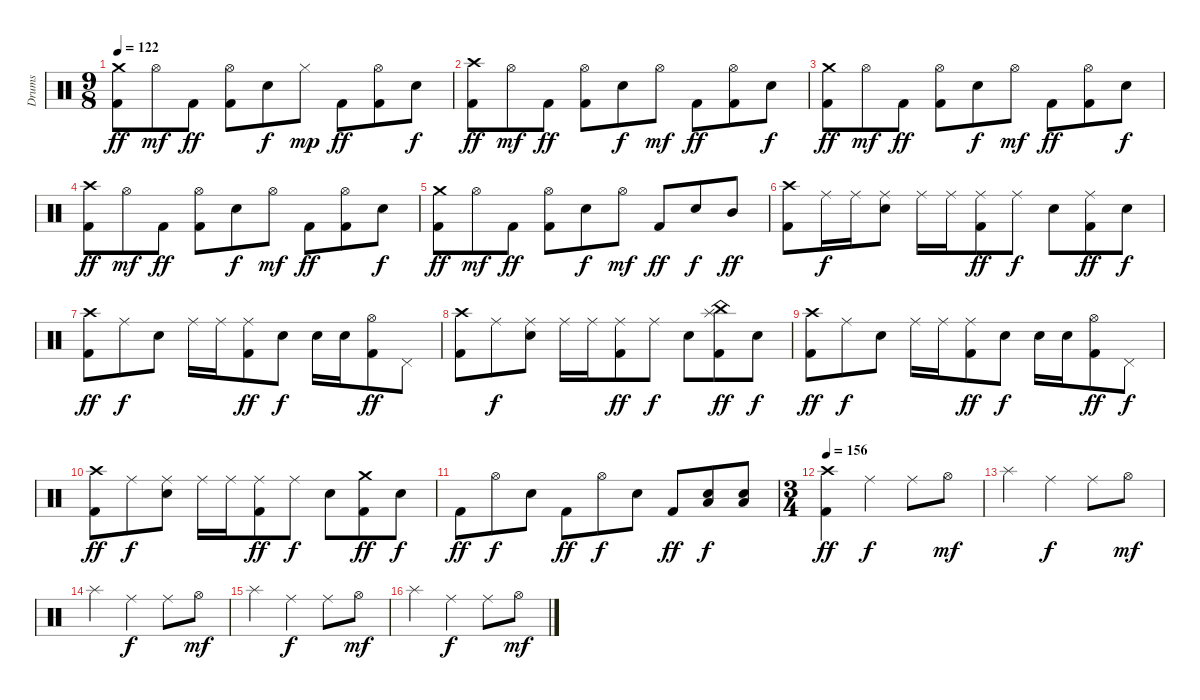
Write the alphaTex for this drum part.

\track ("Drums" "Drums") {instrument percussion}
\staff {score}
\articulation defaults
\ts (9 8)
\tempo 122
\clef neutral
\ks c
("Crash medium (hit)" "Kick (hit) 2").8{dy ff} "Hi-Hat (open)".8{dy mf} "Kick (hit) 2".8{dy ff} ("Hi-Hat (open)" "Kick (hit) 2").8 "Electric Snare (hit)".8{dy f} "Hi-Hat (closed)".8{dy mp} "Kick (hit) 2".8{dy ff} ("Hi-Hat (open)" "Kick (hit) 2").8 "Electric Snare (hit)".8{dy f} |
("Crash high (hit)" "Kick (hit) 2").8{dy ff} "Hi-Hat (open)".8{dy mf} "Kick (hit) 2".8{dy ff} ("Hi-Hat (open)" "Kick (hit) 2").8 "Electric Snare (hit)".8{dy f} "Hi-Hat (open)".8{dy mf} "Kick (hit) 2".8{dy ff} ("Hi-Hat (open)" "Kick (hit) 2").8 "Electric Snare (hit)".8{dy f} |
("Crash medium (hit)" "Kick (hit) 2").8{dy ff} "Hi-Hat (open)".8{dy mf} "Kick (hit) 2".8{dy ff} ("Hi-Hat (open)" "Kick (hit) 2").8 "Electric Snare (hit)".8{dy f} "Hi-Hat (open)".8{dy mf} "Kick (hit) 2".8{dy ff} ("Hi-Hat (open)" "Kick (hit) 2").8 "Electric Snare (hit)".8{dy f} |
("Crash high (hit)" "Kick (hit) 2").8{dy ff} "Hi-Hat (open)".8{dy mf} "Kick (hit) 2".8{dy ff} ("Hi-Hat (open)" "Kick (hit) 2").8 "Electric Snare (hit)".8{dy f} "Hi-Hat (open)".8{dy mf} "Kick (hit) 2".8{dy ff} ("Hi-Hat (open)" "Kick (hit) 2").8 "Electric Snare (hit)".8{dy f} |
("Crash medium (hit)" "Kick (hit) 2").8{dy ff} "Hi-Hat (open)".8{dy mf} "Kick (hit) 2".8{dy ff} ("Hi-Hat (open)" "Kick (hit) 2").8 "Electric Snare (hit)".8{dy f} "Hi-Hat (open)".8{dy mf} "Kick (hit) 2".8{dy ff} "Electric Snare (hit)".8{dy f} "Mid Tom (hit)".8{dy ff} |
("Crash high (hit)" "Kick (hit) 2").8 "Ride (middle)".16{dy f} "Ride (middle)".16 ("Ride (middle)" "Electric Snare (hit)").8 "Ride (middle)".16 "Ride (middle)".16 ("Ride (middle)" "Kick (hit) 2").8{dy ff} "Ride (middle)".8{dy f} "Electric Snare (hit)".8 ("Ride (middle)" "Kick (hit) 2").8{dy ff} "Electric Snare (hit)".8{dy f} |
("Crash high (hit)" "Kick (hit) 2").8{dy ff} "Ride (middle)".8{dy f} "Electric Snare (hit)".8 "Ride (middle)".16 "Ride (middle)".16 ("Ride (middle)" "Kick (hit) 2").8{dy ff} "Electric Snare (hit)".8{dy f} "Electric Snare (hit)".16 "Electric Snare (hit)".16 ("Hi-Hat (open)" "Kick (hit) 2").8{dy ff} "Pedal Hi-Hat (hit)".8 |
("Crash high (hit)" "Kick (hit) 2").8 "Ride (middle)".8{dy f} ("Ride (middle)" "Electric Snare (hit)").8 "Ride (middle)".16 "Ride (middle)".16 ("Ride (middle)" "Kick (hit) 2").8{dy ff} "Ride (middle)".8{dy f} "Electric Snare (hit)".8 ("Splash (hit)" "China (hit)" "Kick (hit) 2").8{dy ff} "Electric Snare (hit)".8{dy f} |
("Crash high (hit)" "Kick (hit) 2").8{dy ff} "Ride (middle)".8{dy f} "Electric Snare (hit)".8 "Ride (middle)".16 "Ride (middle)".16 ("Ride (middle)" "Kick (hit) 2").8{dy ff} "Electric Snare (hit)".8{dy f} "Electric Snare (hit)".16 "Electric Snare (hit)".16 ("Hi-Hat (open)" "Kick (hit) 2").8{dy ff} "Pedal Hi-Hat (hit)".8{dy f} |
("Crash high (hit)" "Kick (hit) 2").8{dy ff} "Ride (middle)".8{dy f} ("Ride (middle)" "Electric Snare (hit)").8 "Ride (middle)".16 "Ride (middle)".16 ("Ride (middle)" "Kick (hit) 2").8{dy ff} "Ride (middle)".8{dy f} "Electric Snare (hit)".8 ("Crash medium (hit)" "Kick (hit) 2").8{dy ff} "Electric Snare (hit)".8{dy f} |
"Kick (hit) 2".8{dy ff} "Hi-Hat (open)".8{dy f} "Electric Snare (hit)".8 "Kick (hit) 2".8{dy ff} "Hi-Hat (open)".8{dy f} "Electric Snare (hit)".8 "Kick (hit) 2".8{dy ff} ("Electric Snare (hit)" "Low Tom (hit)").8{dy f} ("Electric Snare (hit)" "Low Tom (hit)").8 |
\ts (3 4)
\tempo 156
("Crash high (hit)" "Kick (hit) 2").4{dy ff} "Ride (middle)".4{dy f} "Ride (middle)".8 "Hi-Hat (open)".8{dy mf} |
"Splash (hit)".4 "Ride (middle)".4{dy f} "Ride (middle)".8 "Hi-Hat (open)".8{dy mf} |
"Splash (hit)".4 "Ride (middle)".4{dy f} "Ride (middle)".8 "Hi-Hat (open)".8{dy mf} |
"Splash (hit)".4 "Ride (middle)".4{dy f} "Ride (middle)".8 "Hi-Hat (open)".8{dy mf} |
"Splash (hit)".4 "Ride (middle)".4{dy f} "Ride (middle)".8 "Hi-Hat (open)".8{dy mf}
